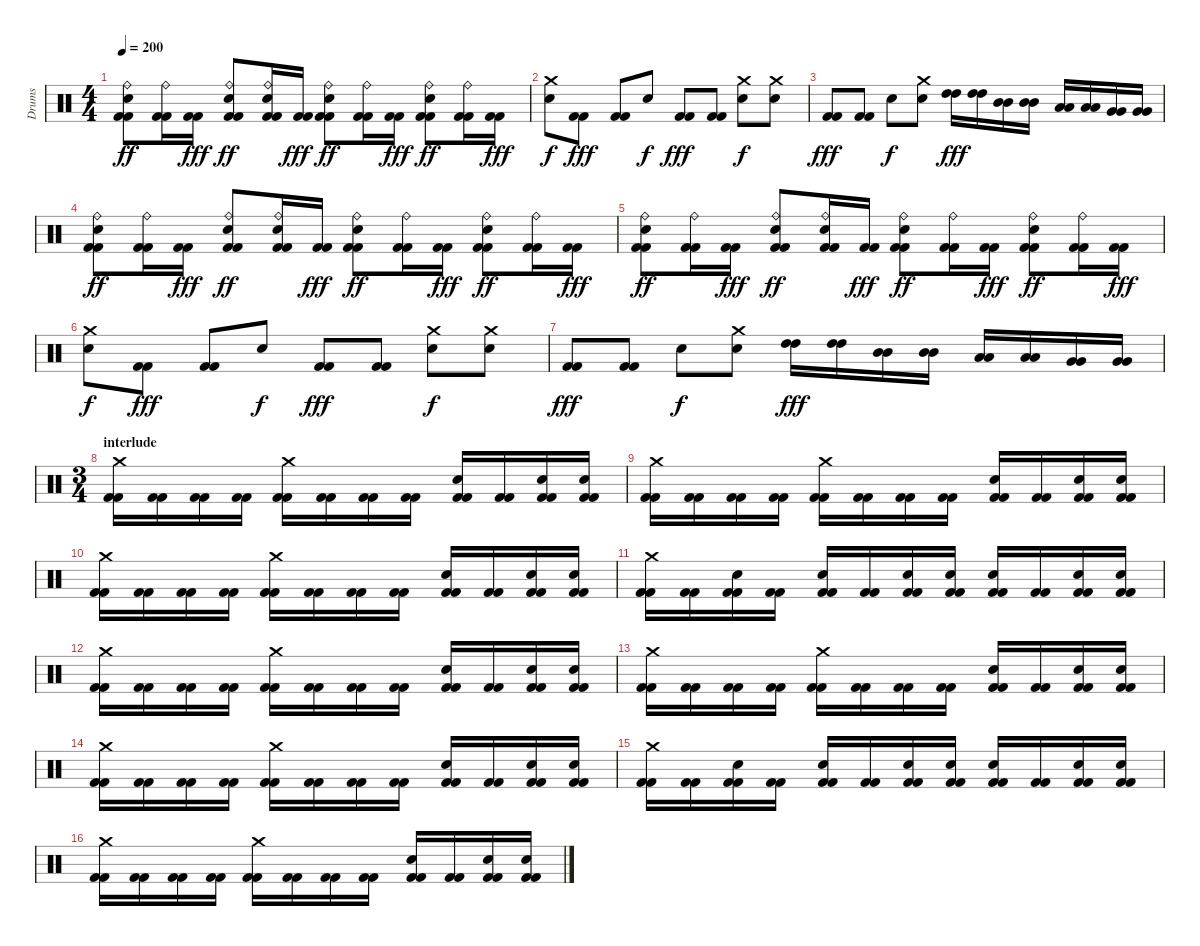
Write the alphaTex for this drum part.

\track ("Drums" "Drums") {instrument percussion}
\staff {score}
\articulation defaults
\ts (4 4)
\tempo 200
\clef neutral
\ks c
("Kick (hit) 2" "Kick (hit) 2" "Ride (bell)" "Electric Snare (hit)").8{dy ff} ("Kick (hit) 2" "Kick (hit) 2" "Ride (bell)").16 ("Kick (hit) 2" "Kick (hit) 2").16{dy fff} ("Kick (hit) 2" "Kick (hit) 2" "Ride (bell)" "Electric Snare (hit)").8{dy ff} ("Kick (hit) 2" "Kick (hit) 2" "Ride (bell)" "Electric Snare (hit)").16 ("Kick (hit) 2" "Kick (hit) 2").16{dy fff} ("Kick (hit) 2" "Kick (hit) 2" "Ride (bell)" "Electric Snare (hit)").8{dy ff} ("Kick (hit) 2" "Kick (hit) 2" "Ride (bell)").16 ("Kick (hit) 2" "Kick (hit) 2").16{dy fff} ("Kick (hit) 2" "Kick (hit) 2" "Ride (bell)" "Electric Snare (hit)").8{dy ff} ("Kick (hit) 2" "Kick (hit) 2" "Ride (bell)").16 ("Kick (hit) 2" "Kick (hit) 2").16{dy fff} |
("Crash medium (hit)" "Electric Snare (hit)").8{dy f} ("Kick (hit) 2" "Kick (hit) 2").8{dy fff} ("Kick (hit) 2" "Kick (hit) 2").8 "Electric Snare (hit)".8{dy f} ("Kick (hit) 2" "Kick (hit) 2").8{dy fff} ("Kick (hit) 2" "Kick (hit) 2").8 ("Crash medium (hit)" "Electric Snare (hit)").8{dy f} ("Crash medium (hit)" "Electric Snare (hit)").8 |
("Kick (hit) 2" "Kick (hit) 2").8{dy fff} ("Kick (hit) 2" "Kick (hit) 2").8 "Electric Snare (hit)".8{dy f} ("Crash medium (hit)" "Electric Snare (hit)").8 ("High Tom (hit)" "High Tom (hit)").16{dy fff} ("High Tom (hit)" "High Tom (hit)").16 ("Mid Tom (hit)" "Mid Tom (hit)").16 ("Mid Tom (hit)" "Mid Tom (hit)").16 ("Low Tom (hit)" "Low Tom (hit)").16 ("Low Tom (hit)" "Low Tom (hit)").16 ("Very Low Tom (hit)" "Very Low Tom (hit)").16 ("Very Low Tom (hit)" "Very Low Tom (hit)").16 |
("Kick (hit) 2" "Kick (hit) 2" "Ride (bell)" "Electric Snare (hit)").8{dy ff} ("Kick (hit) 2" "Kick (hit) 2" "Ride (bell)").16 ("Kick (hit) 2" "Kick (hit) 2").16{dy fff} ("Kick (hit) 2" "Kick (hit) 2" "Ride (bell)" "Electric Snare (hit)").8{dy ff} ("Kick (hit) 2" "Kick (hit) 2" "Ride (bell)" "Electric Snare (hit)").16 ("Kick (hit) 2" "Kick (hit) 2").16{dy fff} ("Kick (hit) 2" "Kick (hit) 2" "Ride (bell)" "Electric Snare (hit)").8{dy ff} ("Kick (hit) 2" "Kick (hit) 2" "Ride (bell)").16 ("Kick (hit) 2" "Kick (hit) 2").16{dy fff} ("Kick (hit) 2" "Kick (hit) 2" "Ride (bell)" "Electric Snare (hit)").8{dy ff} ("Kick (hit) 2" "Kick (hit) 2" "Ride (bell)").16 ("Kick (hit) 2" "Kick (hit) 2").16{dy fff} |
("Kick (hit) 2" "Kick (hit) 2" "Ride (bell)" "Electric Snare (hit)").8{dy ff} ("Kick (hit) 2" "Kick (hit) 2" "Ride (bell)").16 ("Kick (hit) 2" "Kick (hit) 2").16{dy fff} ("Kick (hit) 2" "Kick (hit) 2" "Ride (bell)" "Electric Snare (hit)").8{dy ff} ("Kick (hit) 2" "Kick (hit) 2" "Ride (bell)" "Electric Snare (hit)").16 ("Kick (hit) 2" "Kick (hit) 2").16{dy fff} ("Kick (hit) 2" "Kick (hit) 2" "Ride (bell)" "Electric Snare (hit)").8{dy ff} ("Kick (hit) 2" "Kick (hit) 2" "Ride (bell)").16 ("Kick (hit) 2" "Kick (hit) 2").16{dy fff} ("Kick (hit) 2" "Kick (hit) 2" "Ride (bell)" "Electric Snare (hit)").8{dy ff} ("Kick (hit) 2" "Kick (hit) 2" "Ride (bell)").16 ("Kick (hit) 2" "Kick (hit) 2").16{dy fff} |
("Crash medium (hit)" "Electric Snare (hit)").8{dy f} ("Kick (hit) 2" "Kick (hit) 2").8{dy fff} ("Kick (hit) 2" "Kick (hit) 2").8 "Electric Snare (hit)".8{dy f} ("Kick (hit) 2" "Kick (hit) 2").8{dy fff} ("Kick (hit) 2" "Kick (hit) 2").8 ("Crash medium (hit)" "Electric Snare (hit)").8{dy f} ("Crash medium (hit)" "Electric Snare (hit)").8 |
("Kick (hit) 2" "Kick (hit) 2").8{dy fff} ("Kick (hit) 2" "Kick (hit) 2").8 "Electric Snare (hit)".8{dy f} ("Crash medium (hit)" "Electric Snare (hit)").8 ("High Tom (hit)" "High Tom (hit)").16{dy fff} ("High Tom (hit)" "High Tom (hit)").16 ("Mid Tom (hit)" "Mid Tom (hit)").16 ("Mid Tom (hit)" "Mid Tom (hit)").16 ("Low Tom (hit)" "Low Tom (hit)").16 ("Low Tom (hit)" "Low Tom (hit)").16 ("Very Low Tom (hit)" "Very Low Tom (hit)").16 ("Very Low Tom (hit)" "Very Low Tom (hit)").16 |
\ts (3 4)
\section ("" "interlude")
("Crash medium (hit)" "Kick (hit) 2" "Kick (hit) 2").16 ("Kick (hit) 2" "Kick (hit) 2").16 ("Kick (hit) 2" "Kick (hit) 2").16 ("Kick (hit) 2" "Kick (hit) 2").16 ("Crash medium (hit)" "Kick (hit) 2" "Kick (hit) 2").16 ("Kick (hit) 2" "Kick (hit) 2").16 ("Kick (hit) 2" "Kick (hit) 2").16 ("Kick (hit) 2" "Kick (hit) 2").16 ("Electric Snare (hit)" "Kick (hit) 2" "Kick (hit) 2").16 ("Kick (hit) 2" "Kick (hit) 2").16 ("Electric Snare (hit)" "Kick (hit) 2" "Kick (hit) 2").16 ("Electric Snare (hit)" "Kick (hit) 2" "Kick (hit) 2").16 |
("Crash medium (hit)" "Kick (hit) 2" "Kick (hit) 2").16 ("Kick (hit) 2" "Kick (hit) 2").16 ("Kick (hit) 2" "Kick (hit) 2").16 ("Kick (hit) 2" "Kick (hit) 2").16 ("Crash medium (hit)" "Kick (hit) 2" "Kick (hit) 2").16 ("Kick (hit) 2" "Kick (hit) 2").16 ("Kick (hit) 2" "Kick (hit) 2").16 ("Kick (hit) 2" "Kick (hit) 2").16 ("Electric Snare (hit)" "Kick (hit) 2" "Kick (hit) 2").16 ("Kick (hit) 2" "Kick (hit) 2").16 ("Electric Snare (hit)" "Kick (hit) 2" "Kick (hit) 2").16 ("Electric Snare (hit)" "Kick (hit) 2" "Kick (hit) 2").16 |
("Crash medium (hit)" "Kick (hit) 2" "Kick (hit) 2").16 ("Kick (hit) 2" "Kick (hit) 2").16 ("Kick (hit) 2" "Kick (hit) 2").16 ("Kick (hit) 2" "Kick (hit) 2").16 ("Crash medium (hit)" "Kick (hit) 2" "Kick (hit) 2").16 ("Kick (hit) 2" "Kick (hit) 2").16 ("Kick (hit) 2" "Kick (hit) 2").16 ("Kick (hit) 2" "Kick (hit) 2").16 ("Electric Snare (hit)" "Kick (hit) 2" "Kick (hit) 2").16 ("Kick (hit) 2" "Kick (hit) 2").16 ("Electric Snare (hit)" "Kick (hit) 2" "Kick (hit) 2").16 ("Electric Snare (hit)" "Kick (hit) 2" "Kick (hit) 2").16 |
("Crash medium (hit)" "Kick (hit) 2" "Kick (hit) 2").16 ("Kick (hit) 2" "Kick (hit) 2").16 ("Electric Snare (hit)" "Kick (hit) 2" "Kick (hit) 2").16 ("Kick (hit) 2" "Kick (hit) 2").16 ("Electric Snare (hit)" "Kick (hit) 2" "Kick (hit) 2").16 ("Kick (hit) 2" "Kick (hit) 2").16 ("Electric Snare (hit)" "Kick (hit) 2" "Kick (hit) 2").16 ("Electric Snare (hit)" "Kick (hit) 2" "Kick (hit) 2").16 ("Electric Snare (hit)" "Kick (hit) 2" "Kick (hit) 2").16 ("Kick (hit) 2" "Kick (hit) 2").16 ("Electric Snare (hit)" "Kick (hit) 2" "Kick (hit) 2").16 ("Electric Snare (hit)" "Kick (hit) 2" "Kick (hit) 2").16 |
("Crash medium (hit)" "Kick (hit) 2" "Kick (hit) 2").16 ("Kick (hit) 2" "Kick (hit) 2").16 ("Kick (hit) 2" "Kick (hit) 2").16 ("Kick (hit) 2" "Kick (hit) 2").16 ("Crash medium (hit)" "Kick (hit) 2" "Kick (hit) 2").16 ("Kick (hit) 2" "Kick (hit) 2").16 ("Kick (hit) 2" "Kick (hit) 2").16 ("Kick (hit) 2" "Kick (hit) 2").16 ("Electric Snare (hit)" "Kick (hit) 2" "Kick (hit) 2").16 ("Kick (hit) 2" "Kick (hit) 2").16 ("Electric Snare (hit)" "Kick (hit) 2" "Kick (hit) 2").16 ("Electric Snare (hit)" "Kick (hit) 2" "Kick (hit) 2").16 |
("Crash medium (hit)" "Kick (hit) 2" "Kick (hit) 2").16 ("Kick (hit) 2" "Kick (hit) 2").16 ("Kick (hit) 2" "Kick (hit) 2").16 ("Kick (hit) 2" "Kick (hit) 2").16 ("Crash medium (hit)" "Kick (hit) 2" "Kick (hit) 2").16 ("Kick (hit) 2" "Kick (hit) 2").16 ("Kick (hit) 2" "Kick (hit) 2").16 ("Kick (hit) 2" "Kick (hit) 2").16 ("Electric Snare (hit)" "Kick (hit) 2" "Kick (hit) 2").16 ("Kick (hit) 2" "Kick (hit) 2").16 ("Electric Snare (hit)" "Kick (hit) 2" "Kick (hit) 2").16 ("Electric Snare (hit)" "Kick (hit) 2" "Kick (hit) 2").16 |
("Crash medium (hit)" "Kick (hit) 2" "Kick (hit) 2").16 ("Kick (hit) 2" "Kick (hit) 2").16 ("Kick (hit) 2" "Kick (hit) 2").16 ("Kick (hit) 2" "Kick (hit) 2").16 ("Crash medium (hit)" "Kick (hit) 2" "Kick (hit) 2").16 ("Kick (hit) 2" "Kick (hit) 2").16 ("Kick (hit) 2" "Kick (hit) 2").16 ("Kick (hit) 2" "Kick (hit) 2").16 ("Electric Snare (hit)" "Kick (hit) 2" "Kick (hit) 2").16 ("Kick (hit) 2" "Kick (hit) 2").16 ("Electric Snare (hit)" "Kick (hit) 2" "Kick (hit) 2").16 ("Electric Snare (hit)" "Kick (hit) 2" "Kick (hit) 2").16 |
("Crash medium (hit)" "Kick (hit) 2" "Kick (hit) 2").16 ("Kick (hit) 2" "Kick (hit) 2").16 ("Electric Snare (hit)" "Kick (hit) 2" "Kick (hit) 2").16 ("Kick (hit) 2" "Kick (hit) 2").16 ("Electric Snare (hit)" "Kick (hit) 2" "Kick (hit) 2").16 ("Kick (hit) 2" "Kick (hit) 2").16 ("Electric Snare (hit)" "Kick (hit) 2" "Kick (hit) 2").16 ("Electric Snare (hit)" "Kick (hit) 2" "Kick (hit) 2").16 ("Electric Snare (hit)" "Kick (hit) 2" "Kick (hit) 2").16 ("Kick (hit) 2" "Kick (hit) 2").16 ("Electric Snare (hit)" "Kick (hit) 2" "Kick (hit) 2").16 ("Electric Snare (hit)" "Kick (hit) 2" "Kick (hit) 2").16 |
("Crash medium (hit)" "Kick (hit) 2" "Kick (hit) 2").16 ("Kick (hit) 2" "Kick (hit) 2").16 ("Kick (hit) 2" "Kick (hit) 2").16 ("Kick (hit) 2" "Kick (hit) 2").16 ("Crash medium (hit)" "Kick (hit) 2" "Kick (hit) 2").16 ("Kick (hit) 2" "Kick (hit) 2").16 ("Kick (hit) 2" "Kick (hit) 2").16 ("Kick (hit) 2" "Kick (hit) 2").16 ("Electric Snare (hit)" "Kick (hit) 2" "Kick (hit) 2").16 ("Kick (hit) 2" "Kick (hit) 2").16 ("Electric Snare (hit)" "Kick (hit) 2" "Kick (hit) 2").16 ("Electric Snare (hit)" "Kick (hit) 2" "Kick (hit) 2").16
